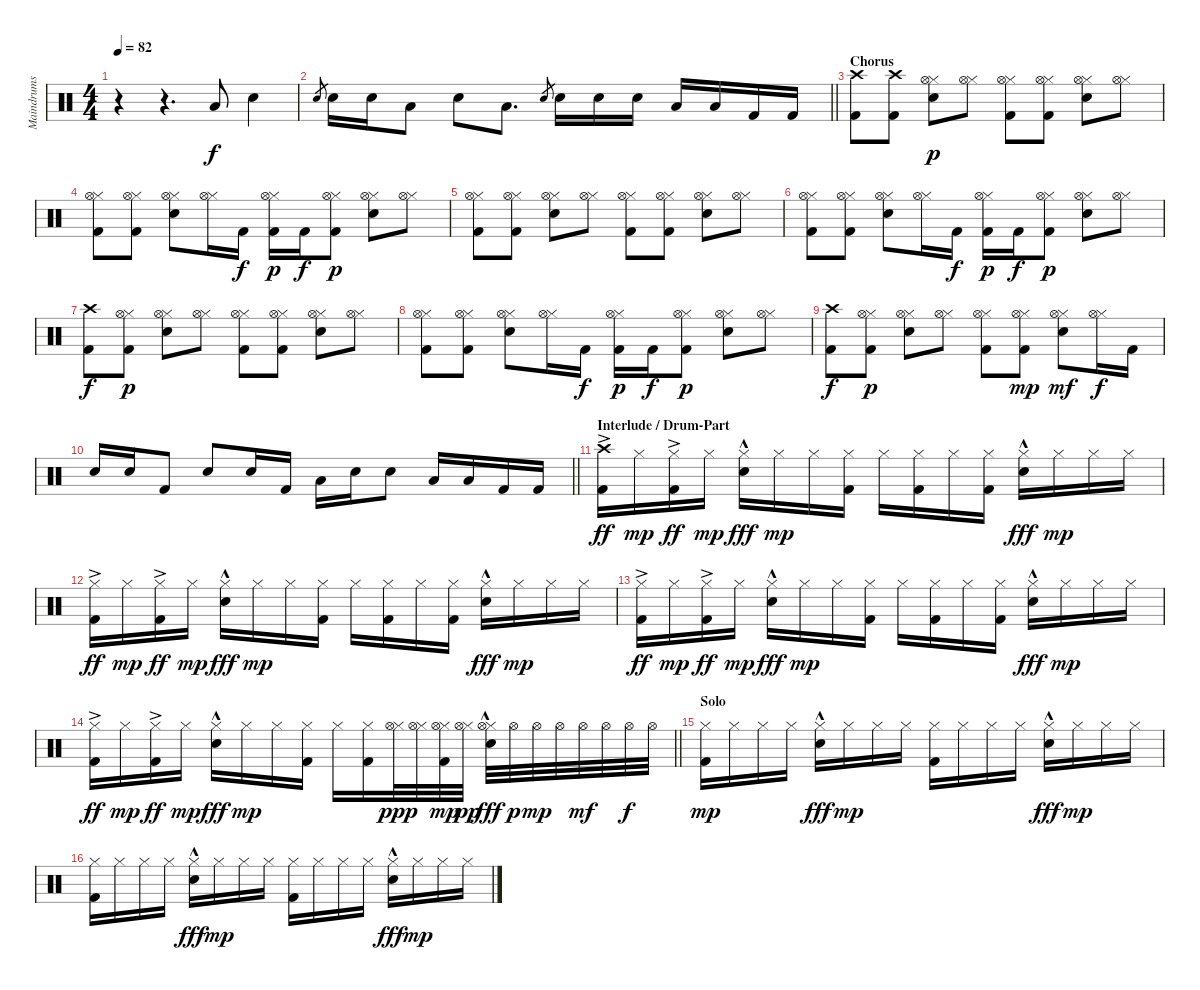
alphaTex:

\track ("Maindrums" "Maindrums") {instrument percussion}
\staff {score}
\articulation defaults
\ts (4 4)
\tempo 82
\clef neutral
\ks c
r.4{dy f} r.4{d} "Low Tom (hit)".8{volume 13} "Snare (hit) 2".4 |
\barLineRight lightlight "Snare (hit) 2".8{gr} "Snare (hit) 2".16 "Snare (hit) 2".16 "Low Tom (hit)".8 "Snare (hit) 2".8 "Low Tom (hit)".8{d} "Snare (hit) 2".8{gr} "Snare (hit) 2".16 "Snare (hit) 2".16 "Snare (hit) 2".16 "Low Tom (hit)".16 "Low Tom (hit)".16 "Kick (hit) 2".16 "Kick (hit) 2".16
|
\section ("" "Chorus")
("Crash high (hit)" "Kick (hit) 2").8 ("Crash high (hit)" "Kick (hit) 2").8 ("Hi-Hat (closed)" "Hi-Hat (open)" "Snare (hit) 2").8{dy p} ("Hi-Hat (closed)" "Hi-Hat (open)").8 ("Hi-Hat (closed)" "Hi-Hat (open)" "Kick (hit) 2").8 ("Hi-Hat (closed)" "Hi-Hat (open)" "Kick (hit) 2").8 ("Hi-Hat (closed)" "Hi-Hat (open)" "Snare (hit) 2").8 ("Hi-Hat (closed)" "Hi-Hat (open)").8 |
("Hi-Hat (closed)" "Hi-Hat (open)" "Kick (hit) 2").8 ("Hi-Hat (closed)" "Hi-Hat (open)" "Kick (hit) 2").8 ("Hi-Hat (closed)" "Hi-Hat (open)" "Snare (hit) 2").8 ("Hi-Hat (closed)" "Hi-Hat (open)").16 "Kick (hit) 2".16{dy f} ("Hi-Hat (closed)" "Hi-Hat (open)" "Kick (hit) 2").16{dy p} "Kick (hit) 2".16{dy f} ("Hi-Hat (closed)" "Hi-Hat (open)" "Kick (hit) 2").8{dy p} ("Hi-Hat (closed)" "Hi-Hat (open)" "Snare (hit) 2").8 ("Hi-Hat (closed)" "Hi-Hat (open)").8 |
("Hi-Hat (closed)" "Hi-Hat (open)" "Kick (hit) 2").8 ("Hi-Hat (closed)" "Hi-Hat (open)" "Kick (hit) 2").8 ("Hi-Hat (closed)" "Hi-Hat (open)" "Snare (hit) 2").8 ("Hi-Hat (closed)" "Hi-Hat (open)").8 ("Hi-Hat (closed)" "Hi-Hat (open)" "Kick (hit) 2").8 ("Hi-Hat (closed)" "Hi-Hat (open)" "Kick (hit) 2").8 ("Hi-Hat (closed)" "Hi-Hat (open)" "Snare (hit) 2").8 ("Hi-Hat (closed)" "Hi-Hat (open)").8 |
("Hi-Hat (closed)" "Hi-Hat (open)" "Kick (hit) 2").8 ("Hi-Hat (closed)" "Hi-Hat (open)" "Kick (hit) 2").8 ("Hi-Hat (closed)" "Hi-Hat (open)" "Snare (hit) 2").8 ("Hi-Hat (closed)" "Hi-Hat (open)").16 "Kick (hit) 2".16{dy f} ("Hi-Hat (closed)" "Hi-Hat (open)" "Kick (hit) 2").16{dy p} "Kick (hit) 2".16{dy f} ("Hi-Hat (closed)" "Hi-Hat (open)" "Kick (hit) 2").8{dy p} ("Hi-Hat (closed)" "Hi-Hat (open)" "Snare (hit) 2").8 ("Hi-Hat (closed)" "Hi-Hat (open)").8 |
("Crash high (hit)" "Kick (hit) 2").8{dy f} ("Hi-Hat (closed)" "Hi-Hat (open)" "Kick (hit) 2").8{dy p} ("Hi-Hat (closed)" "Hi-Hat (open)" "Snare (hit) 2").8 ("Hi-Hat (closed)" "Hi-Hat (open)").8 ("Hi-Hat (closed)" "Hi-Hat (open)" "Kick (hit) 2").8 ("Hi-Hat (closed)" "Hi-Hat (open)" "Kick (hit) 2").8 ("Hi-Hat (closed)" "Hi-Hat (open)" "Snare (hit) 2").8 ("Hi-Hat (closed)" "Hi-Hat (open)").8 |
("Hi-Hat (closed)" "Hi-Hat (open)" "Kick (hit) 2").8 ("Hi-Hat (closed)" "Hi-Hat (open)" "Kick (hit) 2").8 ("Hi-Hat (closed)" "Hi-Hat (open)" "Snare (hit) 2").8 ("Hi-Hat (closed)" "Hi-Hat (open)").16 "Kick (hit) 2".16{dy f} ("Hi-Hat (closed)" "Hi-Hat (open)" "Kick (hit) 2").16{dy p} "Kick (hit) 2".16{dy f} ("Hi-Hat (closed)" "Hi-Hat (open)" "Kick (hit) 2").8{dy p} ("Hi-Hat (closed)" "Hi-Hat (open)" "Snare (hit) 2").8 ("Hi-Hat (closed)" "Hi-Hat (open)").8 |
("Crash high (hit)" "Kick (hit) 2").8{dy f} ("Hi-Hat (closed)" "Hi-Hat (open)" "Kick (hit) 2").8{dy p} ("Hi-Hat (closed)" "Hi-Hat (open)" "Snare (hit) 2").8 ("Hi-Hat (closed)" "Hi-Hat (open)").8 ("Hi-Hat (closed)" "Hi-Hat (open)" "Kick (hit) 2").8 ("Hi-Hat (closed)" "Hi-Hat (open)" "Kick (hit) 2").8{dy mp} ("Hi-Hat (closed)" "Hi-Hat (open)" "Snare (hit) 2").8{dy mf} ("Hi-Hat (closed)" "Hi-Hat (open)").16{dy f} "Kick (hit) 2".16 |
\barLineRight lightlight "Snare (hit) 2".16 "Snare (hit) 2".16 "Kick (hit) 2".8 "Snare (hit) 2".8 "Snare (hit) 2".16 "Kick (hit) 2".16 "Low Tom (hit)".16 "Snare (hit) 2".16 "Snare (hit) 2".8 "Low Tom (hit)".16 "Low Tom (hit)".16 "Kick (hit) 2".16 "Kick (hit) 2".16
|
\section ("" "Interlude / Drum-Part")
("Crash high (hit)" "Kick (hit) 2"{ac}).16{dy ff volume 14} "Hi-Hat (closed)".16{dy mp} ("Hi-Hat (closed)" "Kick (hit) 2"{ac}).16{dy ff} "Hi-Hat (closed)".16{dy mp} ("Hi-Hat (closed)" "Electric Snare (hit)"{hac}).16{dy fff} "Hi-Hat (closed)".16{dy mp} "Hi-Hat (closed)".16 ("Hi-Hat (closed)" "Kick (hit) 2").16 "Hi-Hat (closed)".16 ("Hi-Hat (closed)" "Kick (hit) 2").16 "Hi-Hat (closed)".16 ("Hi-Hat (closed)" "Kick (hit) 2").16 ("Hi-Hat (closed)" "Electric Snare (hit)"{hac}).16{dy fff} "Hi-Hat (closed)".16{dy mp} "Hi-Hat (closed)".16 "Hi-Hat (closed)".16 |
("Hi-Hat (closed)" "Kick (hit) 2"{ac}).16{dy ff} "Hi-Hat (closed)".16{dy mp} ("Hi-Hat (closed)" "Kick (hit) 2"{ac}).16{dy ff} "Hi-Hat (closed)".16{dy mp} ("Hi-Hat (closed)" "Electric Snare (hit)"{hac}).16{dy fff} "Hi-Hat (closed)".16{dy mp} "Hi-Hat (closed)".16 ("Hi-Hat (closed)" "Kick (hit) 2").16 "Hi-Hat (closed)".16 ("Hi-Hat (closed)" "Kick (hit) 2").16 "Hi-Hat (closed)".16 ("Hi-Hat (closed)" "Kick (hit) 2").16 ("Hi-Hat (closed)" "Electric Snare (hit)"{hac}).16{dy fff} "Hi-Hat (closed)".16{dy mp} "Hi-Hat (closed)".16 "Hi-Hat (closed)".16 |
("Hi-Hat (closed)" "Kick (hit) 2"{ac}).16{dy ff} "Hi-Hat (closed)".16{dy mp} ("Hi-Hat (closed)" "Kick (hit) 2"{ac}).16{dy ff} "Hi-Hat (closed)".16{dy mp} ("Hi-Hat (closed)" "Electric Snare (hit)"{hac}).16{dy fff} "Hi-Hat (closed)".16{dy mp} "Hi-Hat (closed)".16 ("Hi-Hat (closed)" "Kick (hit) 2").16 "Hi-Hat (closed)".16 ("Hi-Hat (closed)" "Kick (hit) 2").16 "Hi-Hat (closed)".16 ("Hi-Hat (closed)" "Kick (hit) 2").16 ("Hi-Hat (closed)" "Electric Snare (hit)"{hac}).16{dy fff} "Hi-Hat (closed)".16{dy mp} "Hi-Hat (closed)".16 "Hi-Hat (closed)".16 |
\barLineRight lightlight
("Hi-Hat (closed)" "Kick (hit) 2"{ac}).16{dy ff} "Hi-Hat (closed)".16{dy mp} ("Hi-Hat (closed)" "Kick (hit) 2"{ac}).16{dy ff} "Hi-Hat (closed)".16{dy mp} ("Hi-Hat (closed)" "Electric Snare (hit)"{hac}).16{dy fff} "Hi-Hat (closed)".16{dy mp} "Hi-Hat (closed)".16 ("Hi-Hat (closed)" "Kick (hit) 2").16 "Hi-Hat (closed)".16 ("Hi-Hat (closed)" "Kick (hit) 2").16 ("Hi-Hat (closed)" "Hi-Hat (open)").32{dy ppp} ("Hi-Hat (closed)" "Hi-Hat (open)").32 ("Hi-Hat (closed)" "Hi-Hat (open)" "Kick (hit) 2").32{dy mp} ("Hi-Hat (closed)" "Hi-Hat (open)").32{dy pp} ("Hi-Hat (closed)" "Hi-Hat (open)" "Electric Snare (hit)"{hac}).32{dy fff} "Hi-Hat (open)".32{dy p} "Hi-Hat (open)".32{dy mp} "Hi-Hat (open)".32 "Hi-Hat (open)".32{dy mf} "Hi-Hat (open)".32 "Hi-Hat (open)".32{dy f} "Hi-Hat (open)".32 |
\section ("" "Solo")
("Hi-Hat (closed)" "Kick (hit) 2").16{dy mp} "Hi-Hat (closed)".16 "Hi-Hat (closed)".16 "Hi-Hat (closed)".16 ("Hi-Hat (closed)" "Electric Snare (hit)"{hac}).16{dy fff} "Hi-Hat (closed)".16{dy mp} "Hi-Hat (closed)".16 "Hi-Hat (closed)".16 ("Hi-Hat (closed)" "Kick (hit) 2").16 "Hi-Hat (closed)".16 "Hi-Hat (closed)".16 "Hi-Hat (closed)".16 ("Hi-Hat (closed)" "Electric Snare (hit)"{hac}).16{dy fff} "Hi-Hat (closed)".16{dy mp} "Hi-Hat (closed)".16 "Hi-Hat (closed)".16 |
("Hi-Hat (closed)" "Kick (hit) 2").16 "Hi-Hat (closed)".16 "Hi-Hat (closed)".16 "Hi-Hat (closed)".16 ("Hi-Hat (closed)" "Electric Snare (hit)"{hac}).16{dy fff} "Hi-Hat (closed)".16{dy mp} "Hi-Hat (closed)".16 "Hi-Hat (closed)".16 ("Hi-Hat (closed)" "Kick (hit) 2").16 "Hi-Hat (closed)".16 "Hi-Hat (closed)".16 "Hi-Hat (closed)".16 ("Hi-Hat (closed)" "Electric Snare (hit)"{hac}).16{dy fff} "Hi-Hat (closed)".16{dy mp} "Hi-Hat (closed)".16 "Hi-Hat (closed)".16
